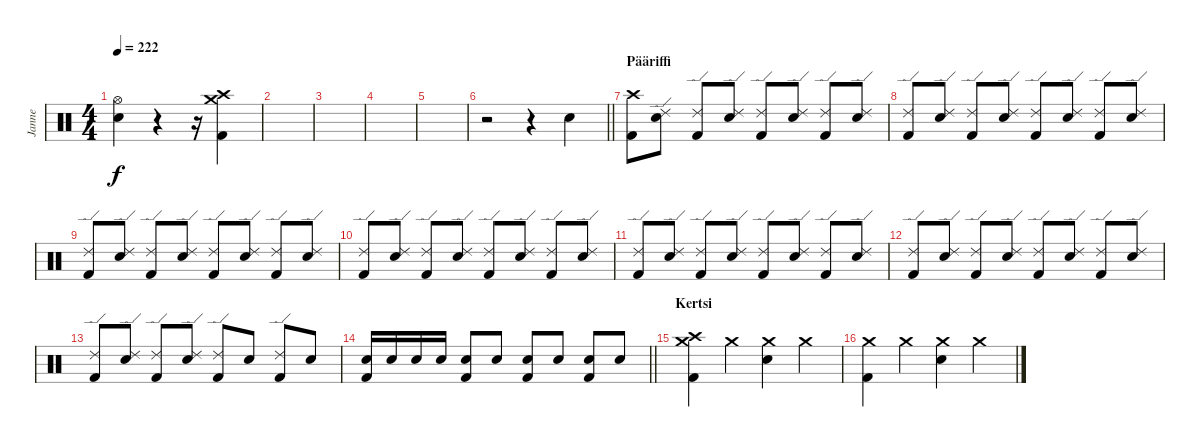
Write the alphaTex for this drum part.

\track ("Janne" "Janne") {instrument percussion}
\staff {score}
\articulation defaults
\ts (4 4)
\tempo 222
\clef neutral
\ks c
("Hi-Hat (open)" "Electric Snare (hit)").4{dy f} r.4 r.16 ("Crash high (hit)" "Crash medium (hit)" "Kick (hit) 2").4 |
|
|
|
|
\barLineRight lightlight
r.2 r.4 "Electric Snare (hit)".4 |
\section ("" "Pääriffi")
("Crash high (hit)" "Kick (hit) 2").8 ("Ride (edge) 2" "Electric Snare (hit)").8 ("Ride (edge) 2" "Kick (hit) 2").8 ("Ride (edge) 2" "Electric Snare (hit)").8 ("Ride (edge) 2" "Kick (hit) 2").8 ("Ride (edge) 2" "Electric Snare (hit)").8 ("Ride (edge) 2" "Kick (hit) 2").8 ("Ride (edge) 2" "Electric Snare (hit)").8 |
("Ride (edge) 2" "Kick (hit) 2").8 ("Ride (edge) 2" "Electric Snare (hit)").8 ("Ride (edge) 2" "Kick (hit) 2").8 ("Ride (edge) 2" "Electric Snare (hit)").8 ("Ride (edge) 2" "Kick (hit) 2").8 ("Ride (edge) 2" "Electric Snare (hit)").8 ("Ride (edge) 2" "Kick (hit) 2").8 ("Ride (edge) 2" "Electric Snare (hit)").8 |
("Ride (edge) 2" "Kick (hit) 2").8 ("Ride (edge) 2" "Electric Snare (hit)").8 ("Ride (edge) 2" "Kick (hit) 2").8 ("Ride (edge) 2" "Electric Snare (hit)").8 ("Ride (edge) 2" "Kick (hit) 2").8 ("Ride (edge) 2" "Electric Snare (hit)").8 ("Ride (edge) 2" "Kick (hit) 2").8 ("Ride (edge) 2" "Electric Snare (hit)").8 |
("Ride (edge) 2" "Kick (hit) 2").8 ("Ride (edge) 2" "Electric Snare (hit)").8 ("Ride (edge) 2" "Kick (hit) 2").8 ("Ride (edge) 2" "Electric Snare (hit)").8 ("Ride (edge) 2" "Kick (hit) 2").8 ("Ride (edge) 2" "Electric Snare (hit)").8 ("Ride (edge) 2" "Kick (hit) 2").8 ("Ride (edge) 2" "Electric Snare (hit)").8 |
("Ride (edge) 2" "Kick (hit) 2").8 ("Ride (edge) 2" "Electric Snare (hit)").8 ("Ride (edge) 2" "Kick (hit) 2").8 ("Ride (edge) 2" "Electric Snare (hit)").8 ("Ride (edge) 2" "Kick (hit) 2").8 ("Ride (edge) 2" "Electric Snare (hit)").8 ("Ride (edge) 2" "Kick (hit) 2").8 ("Ride (edge) 2" "Electric Snare (hit)").8 |
("Ride (edge) 2" "Kick (hit) 2").8 ("Ride (edge) 2" "Electric Snare (hit)").8 ("Ride (edge) 2" "Kick (hit) 2").8 ("Ride (edge) 2" "Electric Snare (hit)").8 ("Ride (edge) 2" "Kick (hit) 2").8 ("Ride (edge) 2" "Electric Snare (hit)").8 ("Ride (edge) 2" "Kick (hit) 2").8 ("Ride (edge) 2" "Electric Snare (hit)").8 |
("Ride (edge) 2" "Kick (hit) 2").8 ("Ride (edge) 2" "Electric Snare (hit)").8 ("Ride (edge) 2" "Kick (hit) 2").8 ("Ride (edge) 2" "Electric Snare (hit)").8 ("Ride (edge) 2" "Kick (hit) 2").8 "Electric Snare (hit)".8 ("Ride (edge) 2" "Kick (hit) 2").8 "Electric Snare (hit)".8 |
\barLineRight lightlight
("Electric Snare (hit)" "Kick (hit) 2").16 "Electric Snare (hit)".16 "Electric Snare (hit)".16 "Electric Snare (hit)".16 ("Electric Snare (hit)" "Kick (hit) 2").8 "Electric Snare (hit)".8 ("Electric Snare (hit)" "Kick (hit) 2").8 "Electric Snare (hit)".8 ("Electric Snare (hit)" "Kick (hit) 2").8 "Electric Snare (hit)".8 |
\section ("" "Kertsi")
("Crash medium (hit)" "Crash high (hit)" "Kick (hit) 2").4 "Crash medium (hit)".4 ("Crash medium (hit)" "Electric Snare (hit)").4 "Crash medium (hit)".4 |
("Crash medium (hit)" "Kick (hit) 2").4 "Crash medium (hit)".4 ("Crash medium (hit)" "Electric Snare (hit)").4 "Crash medium (hit)".4
